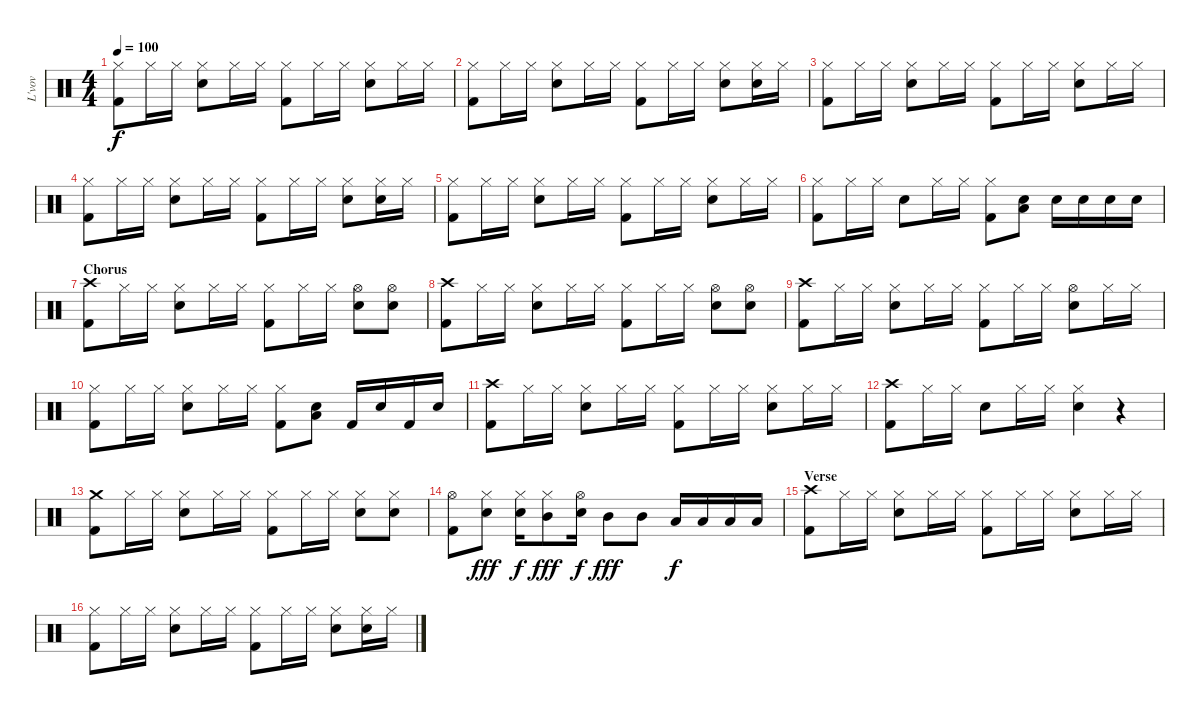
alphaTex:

\track ("L'vov" "L'vov") {instrument percussion}
\staff {score}
\articulation defaults
\ts (4 4)
\tempo 100
\clef neutral
\ks c
("Kick (hit) 2" "Hi-Hat (closed)").8{dy f} "Hi-Hat (closed)".16 "Hi-Hat (closed)".16 ("Snare (hit) 2" "Hi-Hat (closed)").8 "Hi-Hat (closed)".16 "Hi-Hat (closed)".16 ("Kick (hit) 2" "Hi-Hat (closed)").8 "Hi-Hat (closed)".16 "Hi-Hat (closed)".16 ("Snare (hit) 2" "Hi-Hat (closed)").8 "Hi-Hat (closed)".16 "Hi-Hat (closed)".16 |
("Kick (hit) 2" "Hi-Hat (closed)").8 "Hi-Hat (closed)".16 "Hi-Hat (closed)".16 ("Snare (hit) 2" "Hi-Hat (closed)").8 "Hi-Hat (closed)".16 "Hi-Hat (closed)".16 ("Kick (hit) 2" "Hi-Hat (closed)").8 "Hi-Hat (closed)".16 "Hi-Hat (closed)".16 ("Snare (hit) 2" "Hi-Hat (closed)").8 ("Snare (hit) 2" "Hi-Hat (closed)").16 "Hi-Hat (closed)".16 |
("Kick (hit) 2" "Hi-Hat (closed)").8 "Hi-Hat (closed)".16 "Hi-Hat (closed)".16 ("Snare (hit) 2" "Hi-Hat (closed)").8 "Hi-Hat (closed)".16 "Hi-Hat (closed)".16 ("Kick (hit) 2" "Hi-Hat (closed)").8 "Hi-Hat (closed)".16 "Hi-Hat (closed)".16 ("Snare (hit) 2" "Hi-Hat (closed)").8 "Hi-Hat (closed)".16 "Hi-Hat (closed)".16 |
("Kick (hit) 2" "Hi-Hat (closed)").8 "Hi-Hat (closed)".16 "Hi-Hat (closed)".16 ("Snare (hit) 2" "Hi-Hat (closed)").8 "Hi-Hat (closed)".16 "Hi-Hat (closed)".16 ("Kick (hit) 2" "Hi-Hat (closed)").8 "Hi-Hat (closed)".16 "Hi-Hat (closed)".16 ("Snare (hit) 2" "Hi-Hat (closed)").8 ("Snare (hit) 2" "Hi-Hat (closed)").16 "Hi-Hat (closed)".16 |
("Kick (hit) 2" "Hi-Hat (closed)").8 "Hi-Hat (closed)".16 "Hi-Hat (closed)".16 ("Snare (hit) 2" "Hi-Hat (closed)").8 "Hi-Hat (closed)".16 "Hi-Hat (closed)".16 ("Kick (hit) 2" "Hi-Hat (closed)").8 "Hi-Hat (closed)".16 "Hi-Hat (closed)".16 ("Snare (hit) 2" "Hi-Hat (closed)").8 "Hi-Hat (closed)".16 "Hi-Hat (closed)".16 |
("Kick (hit) 2" "Hi-Hat (closed)").8 "Hi-Hat (closed)".16 "Hi-Hat (closed)".16 "Snare (hit) 2".8 "Hi-Hat (closed)".16 "Hi-Hat (closed)".16 ("Kick (hit) 2" "Hi-Hat (closed)").8 ("Snare (hit) 2" "Low Floor Tom (hit)").8 "Snare (hit) 2".16 "Snare (hit) 2".16 "Snare (hit) 2".16 "Snare (hit) 2".16 |
\section ("" "Chorus")
("Kick (hit) 2" "Crash high (hit)").8 "Hi-Hat (closed)".16 "Hi-Hat (closed)".16 ("Snare (hit) 2" "Hi-Hat (closed)").8 "Hi-Hat (closed)".16 "Hi-Hat (closed)".16 ("Kick (hit) 2" "Hi-Hat (closed)").8 "Hi-Hat (closed)".16 "Hi-Hat (closed)".16 ("Snare (hit) 2" "Hi-Hat (open)").8 ("Snare (hit) 2" "Hi-Hat (open)").8 |
("Kick (hit) 2" "Crash high (hit)").8 "Hi-Hat (closed)".16 "Hi-Hat (closed)".16 ("Snare (hit) 2" "Hi-Hat (closed)").8 "Hi-Hat (closed)".16 "Hi-Hat (closed)".16 ("Kick (hit) 2" "Hi-Hat (closed)").8 "Hi-Hat (closed)".16 "Hi-Hat (closed)".16 ("Snare (hit) 2" "Hi-Hat (open)").8 ("Snare (hit) 2" "Hi-Hat (open)").8 |
("Kick (hit) 2" "Crash high (hit)").8 "Hi-Hat (closed)".16 "Hi-Hat (closed)".16 ("Snare (hit) 2" "Hi-Hat (closed)").8 "Hi-Hat (closed)".16 "Hi-Hat (closed)".16 ("Kick (hit) 2" "Hi-Hat (closed)").8 "Hi-Hat (closed)".16 "Hi-Hat (closed)".16 ("Snare (hit) 2" "Hi-Hat (open)").8 "Hi-Hat (closed)".16 "Hi-Hat (closed)".16 |
("Kick (hit) 2" "Hi-Hat (closed)").8 "Hi-Hat (closed)".16 "Hi-Hat (closed)".16 ("Snare (hit) 2" "Hi-Hat (closed)").8 "Hi-Hat (closed)".16 "Hi-Hat (closed)".16 ("Kick (hit) 2" "Hi-Hat (closed)").8 ("Snare (hit) 2" "Low Floor Tom (hit)").8 "Kick (hit) 2".16 "Snare (hit) 2".16 "Kick (hit) 2".16 "Snare (hit) 2".16 |
("Kick (hit) 2" "Crash high (hit)").8 "Hi-Hat (closed)".16 "Hi-Hat (closed)".16 ("Snare (hit) 2" "Hi-Hat (closed)").8 "Hi-Hat (closed)".16 "Hi-Hat (closed)".16 ("Kick (hit) 2" "Hi-Hat (closed)").8 "Hi-Hat (closed)".16 "Hi-Hat (closed)".16 ("Snare (hit) 2" "Hi-Hat (closed)").8 "Hi-Hat (closed)".16 "Hi-Hat (closed)".16 |
("Kick (hit) 2" "Crash high (hit)").8 "Hi-Hat (closed)".16 "Hi-Hat (closed)".16 "Snare (hit) 2".8 "Hi-Hat (closed)".16 "Hi-Hat (closed)".16 ("Electric Snare (hit)" "Hi-Hat (closed)").4 r.4 |
("Kick (hit) 2" "Crash medium (hit)").8 "Hi-Hat (closed)".16 "Hi-Hat (closed)".16 ("Snare (hit) 2" "Hi-Hat (closed)").8 "Hi-Hat (closed)".16 "Hi-Hat (closed)".16 ("Kick (hit) 2" "Hi-Hat (closed)").8 "Hi-Hat (closed)".16 "Hi-Hat (closed)".16 ("Snare (hit) 2" "Hi-Hat (closed)").8 ("Snare (hit) 2" "Hi-Hat (closed)").8 |
("Kick (hit) 2" "Hi-Hat (open)").8 ("Snare (hit) 2" "Hi-Hat (closed)").8{dy fff} ("Snare (hit) 2" "Hi-Hat (closed)").16{dy f} ("Mid Tom (hit)" "Hi-Hat (closed)").8{dy fff} ("Snare (hit) 2" "Hi-Hat (open)").16{dy f} "Mid Tom (hit)".8{dy fff} "Mid Tom (hit)".8 "Low Tom (hit)".16{dy f} "Low Floor Tom (hit)".16 "Low Floor Tom (hit)".16 "Low Floor Tom (hit)".16 |
\section ("" "Verse")
("Kick (hit) 2" "Crash high (hit)").8 "Hi-Hat (closed)".16 "Hi-Hat (closed)".16 ("Snare (hit) 2" "Hi-Hat (closed)").8 "Hi-Hat (closed)".16 "Hi-Hat (closed)".16 ("Kick (hit) 2" "Hi-Hat (closed)").8 "Hi-Hat (closed)".16 "Hi-Hat (closed)".16 ("Snare (hit) 2" "Hi-Hat (closed)").8 "Hi-Hat (closed)".16 "Hi-Hat (closed)".16 |
("Kick (hit) 2" "Hi-Hat (closed)").8 "Hi-Hat (closed)".16 "Hi-Hat (closed)".16 ("Snare (hit) 2" "Hi-Hat (closed)").8 "Hi-Hat (closed)".16 "Hi-Hat (closed)".16 ("Kick (hit) 2" "Hi-Hat (closed)").8 "Hi-Hat (closed)".16 "Hi-Hat (closed)".16 ("Snare (hit) 2" "Hi-Hat (closed)").8 ("Snare (hit) 2" "Hi-Hat (closed)").16 "Hi-Hat (closed)".16
